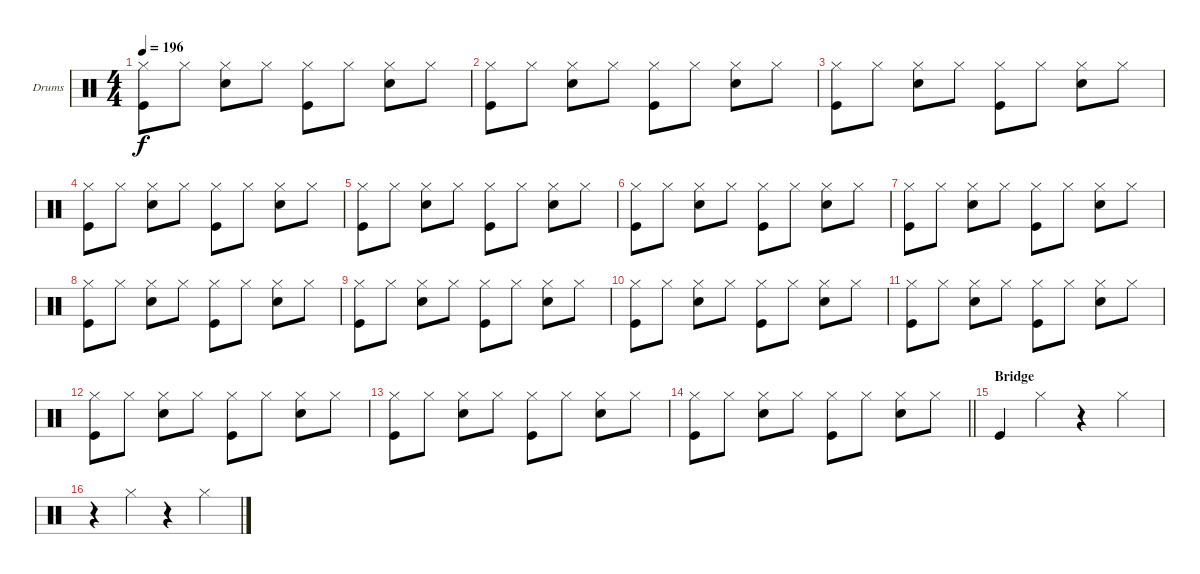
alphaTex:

\bracketExtendMode groupsimilarinstruments
\firstSystemTrackNameOrientation horizontal
\otherSystemsTrackNameOrientation horizontal
\track ("Fabrizio" "Drums") {instrument percussion}
\staff {score}
\articulation defaults
\ts (4 4)
\tempo 196
\clef neutral
\ks c
("Hi-Hat (closed)" "Kick (hit)").8{dy f} "Hi-Hat (closed)".8 ("Snare (hit) 2" "Hi-Hat (closed)").8 "Hi-Hat (closed)".8 ("Hi-Hat (closed)" "Kick (hit)").8 "Hi-Hat (closed)".8 ("Snare (hit) 2" "Hi-Hat (closed)").8 "Hi-Hat (closed)".8 |
("Hi-Hat (closed)" "Kick (hit)").8 "Hi-Hat (closed)".8 ("Snare (hit) 2" "Hi-Hat (closed)").8 "Hi-Hat (closed)".8 ("Hi-Hat (closed)" "Kick (hit)").8 "Hi-Hat (closed)".8 ("Snare (hit) 2" "Hi-Hat (closed)").8 "Hi-Hat (closed)".8 |
("Hi-Hat (closed)" "Kick (hit)").8 "Hi-Hat (closed)".8 ("Snare (hit) 2" "Hi-Hat (closed)").8 "Hi-Hat (closed)".8 ("Hi-Hat (closed)" "Kick (hit)").8 "Hi-Hat (closed)".8 ("Snare (hit) 2" "Hi-Hat (closed)").8 "Hi-Hat (closed)".8 |
("Hi-Hat (closed)" "Kick (hit)").8 "Hi-Hat (closed)".8 ("Snare (hit) 2" "Hi-Hat (closed)").8 "Hi-Hat (closed)".8 ("Hi-Hat (closed)" "Kick (hit)").8 "Hi-Hat (closed)".8 ("Snare (hit) 2" "Hi-Hat (closed)").8 "Hi-Hat (closed)".8 |
("Hi-Hat (closed)" "Kick (hit)").8 "Hi-Hat (closed)".8 ("Snare (hit) 2" "Hi-Hat (closed)").8 "Hi-Hat (closed)".8 ("Hi-Hat (closed)" "Kick (hit)").8 "Hi-Hat (closed)".8 ("Snare (hit) 2" "Hi-Hat (closed)").8 "Hi-Hat (closed)".8 |
("Hi-Hat (closed)" "Kick (hit)").8 "Hi-Hat (closed)".8 ("Snare (hit) 2" "Hi-Hat (closed)").8 "Hi-Hat (closed)".8 ("Hi-Hat (closed)" "Kick (hit)").8 "Hi-Hat (closed)".8 ("Snare (hit) 2" "Hi-Hat (closed)").8 "Hi-Hat (closed)".8 |
("Hi-Hat (closed)" "Kick (hit)").8 "Hi-Hat (closed)".8 ("Snare (hit) 2" "Hi-Hat (closed)").8 "Hi-Hat (closed)".8 ("Hi-Hat (closed)" "Kick (hit)").8 "Hi-Hat (closed)".8 ("Snare (hit) 2" "Hi-Hat (closed)").8 "Hi-Hat (closed)".8 |
("Hi-Hat (closed)" "Kick (hit)").8 "Hi-Hat (closed)".8 ("Snare (hit) 2" "Hi-Hat (closed)").8 "Hi-Hat (closed)".8 ("Hi-Hat (closed)" "Kick (hit)").8 "Hi-Hat (closed)".8 ("Snare (hit) 2" "Hi-Hat (closed)").8 "Hi-Hat (closed)".8 |
("Hi-Hat (closed)" "Kick (hit)").8 "Hi-Hat (closed)".8 ("Snare (hit) 2" "Hi-Hat (closed)").8 "Hi-Hat (closed)".8 ("Hi-Hat (closed)" "Kick (hit)").8 "Hi-Hat (closed)".8 ("Snare (hit) 2" "Hi-Hat (closed)").8 "Hi-Hat (closed)".8 |
("Hi-Hat (closed)" "Kick (hit)").8 "Hi-Hat (closed)".8 ("Snare (hit) 2" "Hi-Hat (closed)").8 "Hi-Hat (closed)".8 ("Hi-Hat (closed)" "Kick (hit)").8 "Hi-Hat (closed)".8 ("Snare (hit) 2" "Hi-Hat (closed)").8 "Hi-Hat (closed)".8 |
("Hi-Hat (closed)" "Kick (hit)").8 "Hi-Hat (closed)".8 ("Snare (hit) 2" "Hi-Hat (closed)").8 "Hi-Hat (closed)".8 ("Hi-Hat (closed)" "Kick (hit)").8 "Hi-Hat (closed)".8 ("Snare (hit) 2" "Hi-Hat (closed)").8 "Hi-Hat (closed)".8 |
("Hi-Hat (closed)" "Kick (hit)").8 "Hi-Hat (closed)".8 ("Snare (hit) 2" "Hi-Hat (closed)").8 "Hi-Hat (closed)".8 ("Hi-Hat (closed)" "Kick (hit)").8 "Hi-Hat (closed)".8 ("Snare (hit) 2" "Hi-Hat (closed)").8 "Hi-Hat (closed)".8 |
("Hi-Hat (closed)" "Kick (hit)").8 "Hi-Hat (closed)".8 ("Snare (hit) 2" "Hi-Hat (closed)").8 "Hi-Hat (closed)".8 ("Hi-Hat (closed)" "Kick (hit)").8 "Hi-Hat (closed)".8 ("Snare (hit) 2" "Hi-Hat (closed)").8 "Hi-Hat (closed)".8 |
\barLineRight lightlight
("Hi-Hat (closed)" "Kick (hit)").8 "Hi-Hat (closed)".8 ("Snare (hit) 2" "Hi-Hat (closed)").8 "Hi-Hat (closed)".8 ("Hi-Hat (closed)" "Kick (hit)").8 "Hi-Hat (closed)".8 ("Snare (hit) 2" "Hi-Hat (closed)").8 "Hi-Hat (closed)".8 |
\section ("" "Bridge")
"Kick (hit)".4 "Hi-Hat (closed)".4 r.4 "Hi-Hat (closed)".4 |
r.4 "Hi-Hat (closed)".4 r.4 "Hi-Hat (closed)".4
